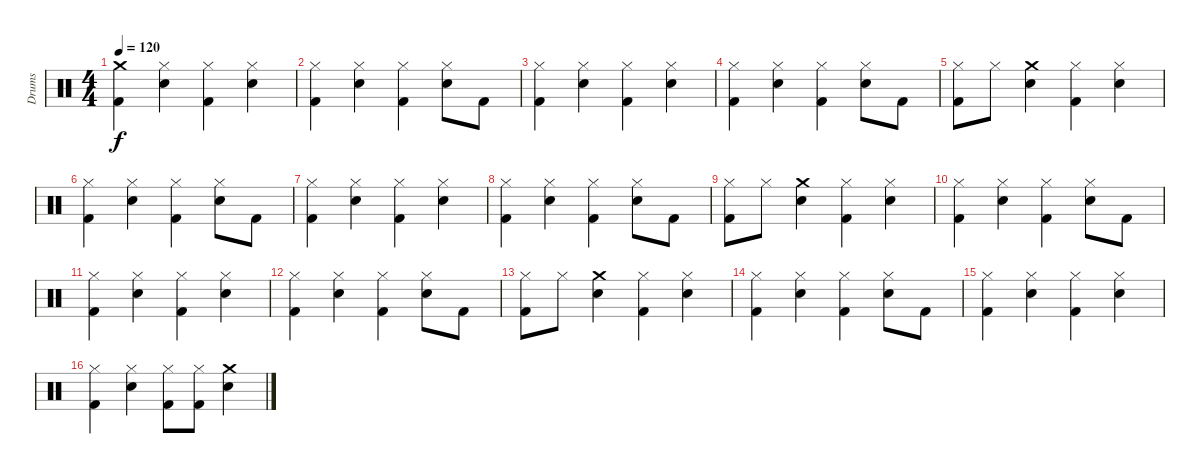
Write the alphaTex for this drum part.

\track ("Drums" "Drums") {instrument percussion}
\staff {score}
\articulation defaults
\ts (4 4)
\tempo 120
\clef neutral
\ks c
("Kick (hit) 2" "Crash medium (hit)").4{dy f} ("Hi-Hat (closed)" "Snare (hit) 2").4 ("Kick (hit) 2" "Hi-Hat (closed)").4 ("Hi-Hat (closed)" "Snare (hit) 2").4 |
("Hi-Hat (closed)" "Kick (hit) 2").4 ("Hi-Hat (closed)" "Snare (hit) 2").4 ("Hi-Hat (closed)" "Kick (hit) 2").4 ("Snare (hit) 2" "Hi-Hat (closed)").8 "Kick (hit) 2".8 |
("Kick (hit) 2" "Hi-Hat (closed)").4 ("Hi-Hat (closed)" "Snare (hit) 2").4 ("Kick (hit) 2" "Hi-Hat (closed)").4 ("Snare (hit) 2" "Hi-Hat (closed)").4 |
("Kick (hit) 2" "Hi-Hat (closed)").4 ("Hi-Hat (closed)" "Snare (hit) 2").4 ("Kick (hit) 2" "Hi-Hat (closed)").4 ("Hi-Hat (closed)" "Snare (hit) 2").8 "Kick (hit) 2".8 |
("Kick (hit) 2" "Hi-Hat (closed)").8 "Hi-Hat (closed)".8 ("Crash medium (hit)" "Snare (hit) 2").4 ("Hi-Hat (closed)" "Kick (hit) 2").4 ("Snare (hit) 2" "Hi-Hat (closed)").4 |
("Hi-Hat (closed)" "Kick (hit) 2").4 ("Snare (hit) 2" "Hi-Hat (closed)").4 ("Hi-Hat (closed)" "Kick (hit) 2").4 ("Snare (hit) 2" "Hi-Hat (closed)").8 "Kick (hit) 2".8 |
("Hi-Hat (closed)" "Kick (hit) 2").4 ("Snare (hit) 2" "Hi-Hat (closed)").4 ("Hi-Hat (closed)" "Kick (hit) 2").4 ("Snare (hit) 2" "Hi-Hat (closed)").4 |
("Hi-Hat (closed)" "Kick (hit) 2").4 ("Hi-Hat (closed)" "Snare (hit) 2").4 ("Hi-Hat (closed)" "Kick (hit) 2").4 ("Snare (hit) 2" "Hi-Hat (closed)").8 "Kick (hit) 2".8 |
("Kick (hit) 2" "Hi-Hat (closed)").8 "Hi-Hat (closed)".8 ("Crash medium (hit)" "Snare (hit) 2").4 ("Hi-Hat (closed)" "Kick (hit) 2").4 ("Hi-Hat (closed)" "Snare (hit) 2").4 |
("Hi-Hat (closed)" "Kick (hit) 2").4 ("Snare (hit) 2" "Hi-Hat (closed)").4 ("Hi-Hat (closed)" "Kick (hit) 2").4 ("Hi-Hat (closed)" "Snare (hit) 2").8 "Kick (hit) 2".8 |
("Kick (hit) 2" "Hi-Hat (closed)").4 ("Hi-Hat (closed)" "Snare (hit) 2").4 ("Hi-Hat (closed)" "Kick (hit) 2").4 ("Hi-Hat (closed)" "Snare (hit) 2").4 |
("Hi-Hat (closed)" "Kick (hit) 2").4 ("Hi-Hat (closed)" "Snare (hit) 2").4 ("Kick (hit) 2" "Hi-Hat (closed)").4 ("Hi-Hat (closed)" "Snare (hit) 2").8 "Kick (hit) 2".8 |
("Kick (hit) 2" "Hi-Hat (closed)").8 "Hi-Hat (closed)".8 ("Crash medium (hit)" "Snare (hit) 2").4 ("Hi-Hat (closed)" "Kick (hit) 2").4 ("Hi-Hat (closed)" "Snare (hit) 2").4 |
("Hi-Hat (closed)" "Kick (hit) 2").4 ("Snare (hit) 2" "Hi-Hat (closed)").4 ("Hi-Hat (closed)" "Kick (hit) 2").4 ("Hi-Hat (closed)" "Snare (hit) 2").8 "Kick (hit) 2".8 |
("Kick (hit) 2" "Hi-Hat (closed)").4 ("Hi-Hat (closed)" "Snare (hit) 2").4 ("Hi-Hat (closed)" "Kick (hit) 2").4 ("Hi-Hat (closed)" "Snare (hit) 2").4 |
("Hi-Hat (closed)" "Kick (hit) 2").4 ("Hi-Hat (closed)" "Snare (hit) 2").4 ("Kick (hit) 2" "Hi-Hat (closed)").8 ("Kick (hit) 2" "Hi-Hat (closed)").8 ("Crash medium (hit)" "Snare (hit) 2").4
